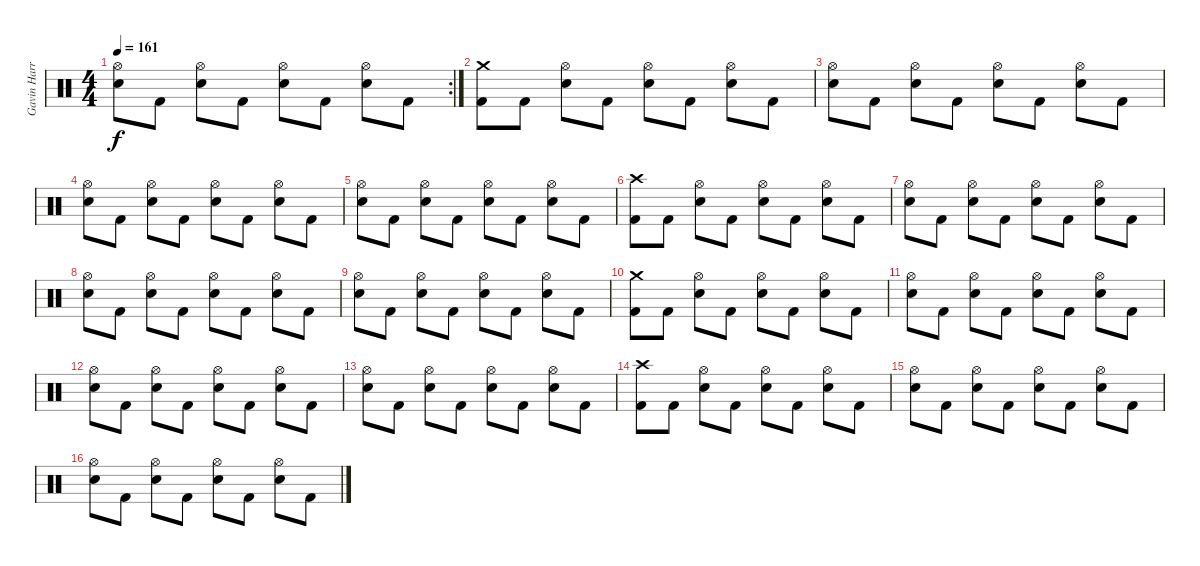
\track ("Gavin Harrison (Drums)" "Gavin Harr") {instrument percussion}
\staff {score}
\articulation defaults
\rc 2
\ts (4 4)
\tempo 161
\clef neutral
\ks c
("Hi-Hat (open)" "Electric Snare (hit)").8{dy f} "Kick (hit) 2".8 ("Hi-Hat (open)" "Electric Snare (hit)").8 "Kick (hit) 2".8 ("Hi-Hat (open)" "Electric Snare (hit)").8 "Kick (hit) 2".8 ("Hi-Hat (open)" "Electric Snare (hit)").8 "Kick (hit) 2".8 |
("Crash medium (hit)" "Kick (hit) 2").8 "Kick (hit) 2".8 ("Hi-Hat (open)" "Electric Snare (hit)").8 "Kick (hit) 2".8 ("Hi-Hat (open)" "Electric Snare (hit)").8 "Kick (hit) 2".8 ("Hi-Hat (open)" "Electric Snare (hit)").8 "Kick (hit) 2".8 |
("Hi-Hat (open)" "Electric Snare (hit)").8 "Kick (hit) 2".8 ("Hi-Hat (open)" "Electric Snare (hit)").8 "Kick (hit) 2".8 ("Hi-Hat (open)" "Electric Snare (hit)").8 "Kick (hit) 2".8 ("Hi-Hat (open)" "Electric Snare (hit)").8 "Kick (hit) 2".8 |
("Hi-Hat (open)" "Electric Snare (hit)").8 "Kick (hit) 2".8 ("Hi-Hat (open)" "Electric Snare (hit)").8 "Kick (hit) 2".8 ("Hi-Hat (open)" "Electric Snare (hit)").8 "Kick (hit) 2".8 ("Hi-Hat (open)" "Electric Snare (hit)").8 "Kick (hit) 2".8 |
("Hi-Hat (open)" "Electric Snare (hit)").8 "Kick (hit) 2".8 ("Hi-Hat (open)" "Electric Snare (hit)").8 "Kick (hit) 2".8 ("Hi-Hat (open)" "Electric Snare (hit)").8 "Kick (hit) 2".8 ("Hi-Hat (open)" "Electric Snare (hit)").8 "Kick (hit) 2".8 |
("Crash high (hit)" "Kick (hit) 2").8 "Kick (hit) 2".8 ("Hi-Hat (open)" "Electric Snare (hit)").8 "Kick (hit) 2".8 ("Hi-Hat (open)" "Electric Snare (hit)").8 "Kick (hit) 2".8 ("Hi-Hat (open)" "Electric Snare (hit)").8 "Kick (hit) 2".8 |
("Hi-Hat (open)" "Electric Snare (hit)").8 "Kick (hit) 2".8 ("Hi-Hat (open)" "Electric Snare (hit)").8 "Kick (hit) 2".8 ("Hi-Hat (open)" "Electric Snare (hit)").8 "Kick (hit) 2".8 ("Hi-Hat (open)" "Electric Snare (hit)").8 "Kick (hit) 2".8 |
("Hi-Hat (open)" "Electric Snare (hit)").8 "Kick (hit) 2".8 ("Hi-Hat (open)" "Electric Snare (hit)").8 "Kick (hit) 2".8 ("Hi-Hat (open)" "Electric Snare (hit)").8 "Kick (hit) 2".8 ("Hi-Hat (open)" "Electric Snare (hit)").8 "Kick (hit) 2".8 |
("Hi-Hat (open)" "Electric Snare (hit)").8 "Kick (hit) 2".8 ("Hi-Hat (open)" "Electric Snare (hit)").8 "Kick (hit) 2".8 ("Hi-Hat (open)" "Electric Snare (hit)").8 "Kick (hit) 2".8 ("Hi-Hat (open)" "Electric Snare (hit)").8 "Kick (hit) 2".8 |
("Crash medium (hit)" "Kick (hit) 2").8 "Kick (hit) 2".8 ("Hi-Hat (open)" "Electric Snare (hit)").8 "Kick (hit) 2".8 ("Hi-Hat (open)" "Electric Snare (hit)").8 "Kick (hit) 2".8 ("Hi-Hat (open)" "Electric Snare (hit)").8 "Kick (hit) 2".8 |
("Hi-Hat (open)" "Electric Snare (hit)").8 "Kick (hit) 2".8 ("Hi-Hat (open)" "Electric Snare (hit)").8 "Kick (hit) 2".8 ("Hi-Hat (open)" "Electric Snare (hit)").8 "Kick (hit) 2".8 ("Hi-Hat (open)" "Electric Snare (hit)").8 "Kick (hit) 2".8 |
("Hi-Hat (open)" "Electric Snare (hit)").8 "Kick (hit) 2".8 ("Hi-Hat (open)" "Electric Snare (hit)").8 "Kick (hit) 2".8 ("Hi-Hat (open)" "Electric Snare (hit)").8 "Kick (hit) 2".8 ("Hi-Hat (open)" "Electric Snare (hit)").8 "Kick (hit) 2".8 |
("Hi-Hat (open)" "Electric Snare (hit)").8 "Kick (hit) 2".8 ("Hi-Hat (open)" "Electric Snare (hit)").8 "Kick (hit) 2".8 ("Hi-Hat (open)" "Electric Snare (hit)").8 "Kick (hit) 2".8 ("Hi-Hat (open)" "Electric Snare (hit)").8 "Kick (hit) 2".8 |
("Crash high (hit)" "Kick (hit) 2").8 "Kick (hit) 2".8 ("Hi-Hat (open)" "Electric Snare (hit)").8 "Kick (hit) 2".8 ("Hi-Hat (open)" "Electric Snare (hit)").8 "Kick (hit) 2".8 ("Hi-Hat (open)" "Electric Snare (hit)").8 "Kick (hit) 2".8 |
("Hi-Hat (open)" "Electric Snare (hit)").8 "Kick (hit) 2".8 ("Hi-Hat (open)" "Electric Snare (hit)").8 "Kick (hit) 2".8 ("Hi-Hat (open)" "Electric Snare (hit)").8 "Kick (hit) 2".8 ("Hi-Hat (open)" "Electric Snare (hit)").8 "Kick (hit) 2".8 |
("Hi-Hat (open)" "Electric Snare (hit)").8 "Kick (hit) 2".8 ("Hi-Hat (open)" "Electric Snare (hit)").8 "Kick (hit) 2".8 ("Hi-Hat (open)" "Electric Snare (hit)").8 "Kick (hit) 2".8 ("Hi-Hat (open)" "Electric Snare (hit)").8 "Kick (hit) 2".8
